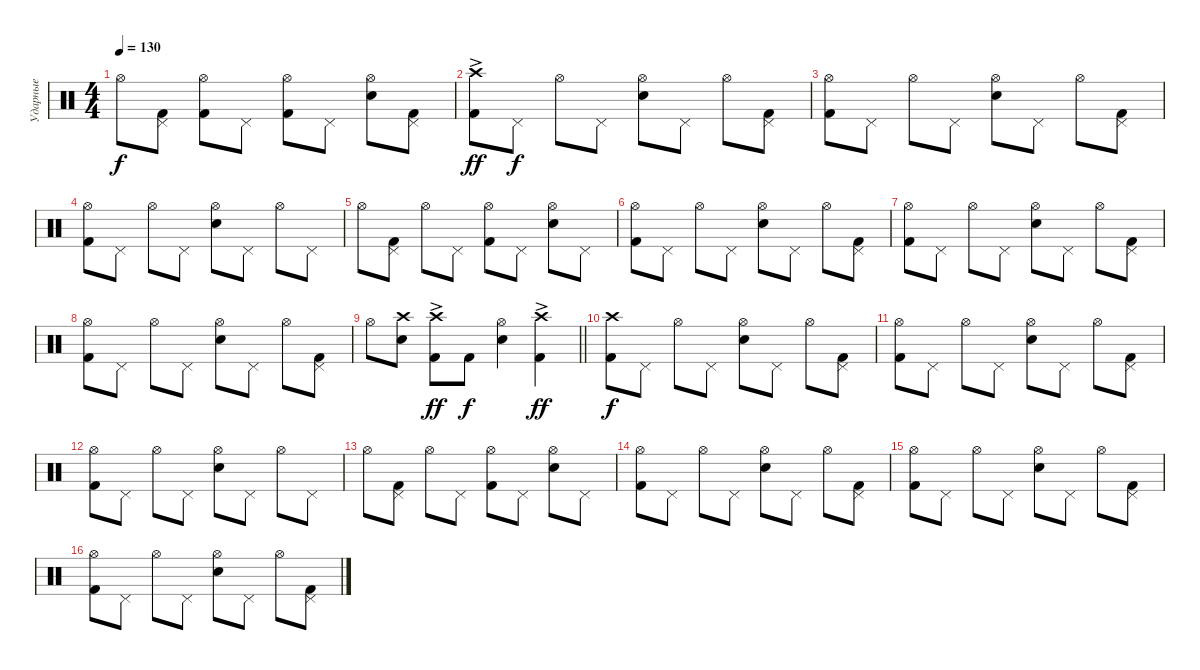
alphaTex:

\track ("Ударные" "Ударные") {instrument percussion}
\staff
\articulation defaults
\ts (4 4)
\tempo 130
\clef neutral
\ks c "Hi-Hat (open)".8{dy f}
("Kick (hit) 2" "Pedal Hi-Hat (hit)").8 ("Kick (hit) 2" "Hi-Hat (open)").8 "Pedal Hi-Hat (hit)".8 ("Kick (hit) 2" "Hi-Hat (open)").8 "Pedal Hi-Hat (hit)".8 ("Snare (hit) 2" "Hi-Hat (open)").8 ("Kick (hit) 2" "Pedal Hi-Hat (hit)").8 |
("Kick (hit) 2" "Crash high (hit)"{ac}).8{dy ff} "Pedal Hi-Hat (hit)".8{dy f} "Hi-Hat (open)".8 "Pedal Hi-Hat (hit)".8 ("Snare (hit) 2" "Hi-Hat (open)").8 "Pedal Hi-Hat (hit)".8 "Hi-Hat (open)".8 ("Kick (hit) 2" "Pedal Hi-Hat (hit)").8 |
("Kick (hit) 2" "Hi-Hat (open)").8 "Pedal Hi-Hat (hit)".8 "Hi-Hat (open)".8 "Pedal Hi-Hat (hit)".8 ("Snare (hit) 2" "Hi-Hat (open)").8 "Pedal Hi-Hat (hit)".8 "Hi-Hat (open)".8 ("Kick (hit) 2" "Pedal Hi-Hat (hit)").8 |
("Kick (hit) 2" "Hi-Hat (open)").8 "Pedal Hi-Hat (hit)".8 "Hi-Hat (open)".8 "Pedal Hi-Hat (hit)".8 ("Snare (hit) 2" "Hi-Hat (open)").8 "Pedal Hi-Hat (hit)".8 "Hi-Hat (open)".8 "Pedal Hi-Hat (hit)".8 |
"Hi-Hat (open)".8 ("Kick (hit) 2" "Pedal Hi-Hat (hit)").8 "Hi-Hat (open)".8 "Pedal Hi-Hat (hit)".8 ("Kick (hit) 2" "Hi-Hat (open)").8 "Pedal Hi-Hat (hit)".8 ("Snare (hit) 2" "Hi-Hat (open)").8 "Pedal Hi-Hat (hit)".8 |
("Kick (hit) 2" "Hi-Hat (open)").8 "Pedal Hi-Hat (hit)".8 "Hi-Hat (open)".8 "Pedal Hi-Hat (hit)".8 ("Snare (hit) 2" "Hi-Hat (open)").8 "Pedal Hi-Hat (hit)".8 "Hi-Hat (open)".8 ("Kick (hit) 2" "Pedal Hi-Hat (hit)").8 |
("Kick (hit) 2" "Hi-Hat (open)").8 "Pedal Hi-Hat (hit)".8 "Hi-Hat (open)".8 "Pedal Hi-Hat (hit)".8 ("Snare (hit) 2" "Hi-Hat (open)").8 "Pedal Hi-Hat (hit)".8 "Hi-Hat (open)".8 ("Kick (hit) 2" "Pedal Hi-Hat (hit)").8 |
("Kick (hit) 2" "Hi-Hat (open)").8 "Pedal Hi-Hat (hit)".8 "Hi-Hat (open)".8 "Pedal Hi-Hat (hit)".8 ("Snare (hit) 2" "Hi-Hat (open)").8 "Pedal Hi-Hat (hit)".8 "Hi-Hat (open)".8 ("Kick (hit) 2" "Pedal Hi-Hat (hit)").8 |
\barLineRight lightlight "Hi-Hat (open)".8
("Snare (hit) 2" "Crash high (hit)").8 ("Kick (hit) 2" "Crash high (hit)"{ac}).8{dy ff} "Kick (hit) 2".8{dy f} ("Snare (hit) 2" "Hi-Hat (open)").4 ("Kick (hit) 2" "Crash high (hit)"{ac}).4{dy ff} |
("Kick (hit) 2" "Crash high (hit)").8{dy f} "Pedal Hi-Hat (hit)".8 "Hi-Hat (open)".8 "Pedal Hi-Hat (hit)".8 ("Snare (hit) 2" "Hi-Hat (open)").8 "Pedal Hi-Hat (hit)".8 "Hi-Hat (open)".8 ("Kick (hit) 2" "Pedal Hi-Hat (hit)").8 |
("Kick (hit) 2" "Hi-Hat (open)").8 "Pedal Hi-Hat (hit)".8 "Hi-Hat (open)".8 "Pedal Hi-Hat (hit)".8 ("Snare (hit) 2" "Hi-Hat (open)").8 "Pedal Hi-Hat (hit)".8 "Hi-Hat (open)".8 ("Kick (hit) 2" "Pedal Hi-Hat (hit)").8 |
("Kick (hit) 2" "Hi-Hat (open)").8 "Pedal Hi-Hat (hit)".8 "Hi-Hat (open)".8 "Pedal Hi-Hat (hit)".8 ("Snare (hit) 2" "Hi-Hat (open)").8 "Pedal Hi-Hat (hit)".8 "Hi-Hat (open)".8 "Pedal Hi-Hat (hit)".8 |
"Hi-Hat (open)".8 ("Kick (hit) 2" "Pedal Hi-Hat (hit)").8 "Hi-Hat (open)".8 "Pedal Hi-Hat (hit)".8 ("Kick (hit) 2" "Hi-Hat (open)").8 "Pedal Hi-Hat (hit)".8 ("Snare (hit) 2" "Hi-Hat (open)").8 "Pedal Hi-Hat (hit)".8 |
("Kick (hit) 2" "Hi-Hat (open)").8 "Pedal Hi-Hat (hit)".8 "Hi-Hat (open)".8 "Pedal Hi-Hat (hit)".8 ("Snare (hit) 2" "Hi-Hat (open)").8 "Pedal Hi-Hat (hit)".8 "Hi-Hat (open)".8 ("Kick (hit) 2" "Pedal Hi-Hat (hit)").8 |
("Kick (hit) 2" "Hi-Hat (open)").8 "Pedal Hi-Hat (hit)".8 "Hi-Hat (open)".8 "Pedal Hi-Hat (hit)".8 ("Snare (hit) 2" "Hi-Hat (open)").8 "Pedal Hi-Hat (hit)".8 "Hi-Hat (open)".8 ("Kick (hit) 2" "Pedal Hi-Hat (hit)").8 |
("Kick (hit) 2" "Hi-Hat (open)").8 "Pedal Hi-Hat (hit)".8 "Hi-Hat (open)".8 "Pedal Hi-Hat (hit)".8 ("Snare (hit) 2" "Hi-Hat (open)").8 "Pedal Hi-Hat (hit)".8 "Hi-Hat (open)".8 ("Kick (hit) 2" "Pedal Hi-Hat (hit)").8
